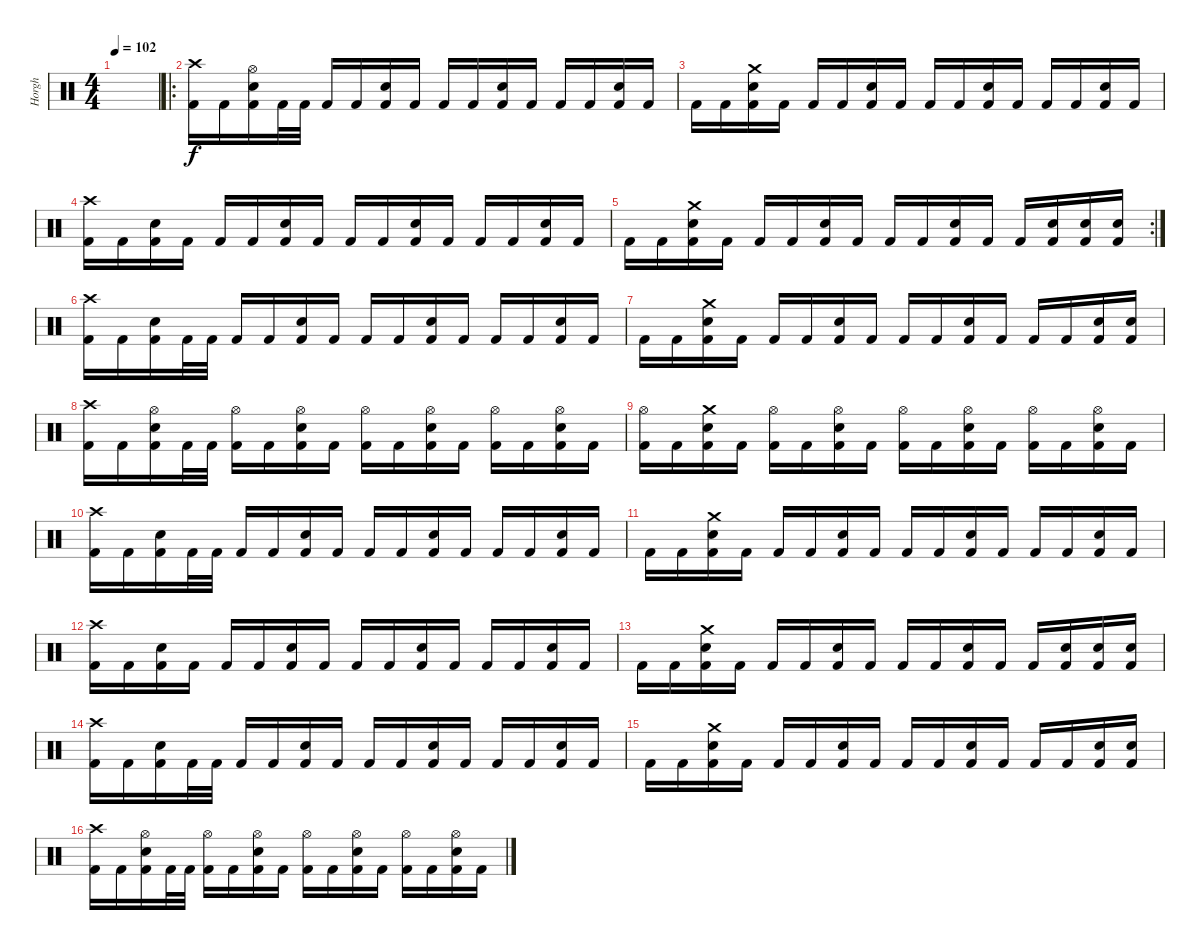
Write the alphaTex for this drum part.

\track ("Horgh" "Horgh") {instrument percussion}
\staff {score}
\articulation defaults
\ts (4 4)
\tempo 102
\clef neutral
\ks c
|
\ro
("Crash high (hit)" "Kick (hit) 2").16 "Kick (hit) 2".16 ("Hi-Hat (open)" "Electric Snare (hit)" "Kick (hit) 2").16 "Kick (hit) 2".32 "Kick (hit) 2".32 "Kick (hit) 2".16 "Kick (hit) 2".16 ("Electric Snare (hit)" "Kick (hit) 2").16 "Kick (hit) 2".16 "Kick (hit) 2".16 "Kick (hit) 2".16 ("Electric Snare (hit)" "Kick (hit) 2").16 "Kick (hit) 2".16 "Kick (hit) 2".16 "Kick (hit) 2".16 ("Electric Snare (hit)" "Kick (hit) 2").16 "Kick (hit) 2".16 |
"Kick (hit) 2".16 "Kick (hit) 2".16 ("Crash medium (hit)" "Electric Snare (hit)" "Kick (hit) 2").16 "Kick (hit) 2".16 "Kick (hit) 2".16 "Kick (hit) 2".16 ("Electric Snare (hit)" "Kick (hit) 2").16 "Kick (hit) 2".16 "Kick (hit) 2".16 "Kick (hit) 2".16 ("Electric Snare (hit)" "Kick (hit) 2").16 "Kick (hit) 2".16 "Kick (hit) 2".16 "Kick (hit) 2".16 ("Electric Snare (hit)" "Kick (hit) 2").16 "Kick (hit) 2".16 |
("Crash high (hit)" "Kick (hit) 2").16 "Kick (hit) 2".16 ("Electric Snare (hit)" "Kick (hit) 2").16 "Kick (hit) 2".16 "Kick (hit) 2".16 "Kick (hit) 2".16 ("Electric Snare (hit)" "Kick (hit) 2").16 "Kick (hit) 2".16 "Kick (hit) 2".16 "Kick (hit) 2".16 ("Electric Snare (hit)" "Kick (hit) 2").16 "Kick (hit) 2".16 "Kick (hit) 2".16 "Kick (hit) 2".16 ("Electric Snare (hit)" "Kick (hit) 2").16 "Kick (hit) 2".16 |
\rc 2 "Kick (hit) 2".16 "Kick (hit) 2".16
("Crash medium (hit)" "Electric Snare (hit)" "Kick (hit) 2").16 "Kick (hit) 2".16 "Kick (hit) 2".16 "Kick (hit) 2".16 ("Electric Snare (hit)" "Kick (hit) 2").16 "Kick (hit) 2".16 "Kick (hit) 2".16 "Kick (hit) 2".16 ("Electric Snare (hit)" "Kick (hit) 2").16 "Kick (hit) 2".16 "Kick (hit) 2".16 ("Electric Snare (hit)" "Kick (hit) 2").16 ("Electric Snare (hit)" "Kick (hit) 2").16 ("Electric Snare (hit)" "Kick (hit) 2").16 |
("Crash high (hit)" "Kick (hit) 2").16 "Kick (hit) 2".16 ("Electric Snare (hit)" "Kick (hit) 2").16 "Kick (hit) 2".32 "Kick (hit) 2".32 "Kick (hit) 2".16 "Kick (hit) 2".16 ("Electric Snare (hit)" "Kick (hit) 2").16 "Kick (hit) 2".16 "Kick (hit) 2".16 "Kick (hit) 2".16 ("Electric Snare (hit)" "Kick (hit) 2").16 "Kick (hit) 2".16 "Kick (hit) 2".16 "Kick (hit) 2".16 ("Electric Snare (hit)" "Kick (hit) 2").16 "Kick (hit) 2".16 |
"Kick (hit) 2".16 "Kick (hit) 2".16 ("Crash medium (hit)" "Electric Snare (hit)" "Kick (hit) 2").16 "Kick (hit) 2".16 "Kick (hit) 2".16 "Kick (hit) 2".16 ("Electric Snare (hit)" "Kick (hit) 2").16 "Kick (hit) 2".16 "Kick (hit) 2".16 "Kick (hit) 2".16 ("Electric Snare (hit)" "Kick (hit) 2").16 "Kick (hit) 2".16 "Kick (hit) 2".16 "Kick (hit) 2".16 ("Electric Snare (hit)" "Kick (hit) 2").16 ("Electric Snare (hit)" "Kick (hit) 2").16 |
("Crash high (hit)" "Kick (hit) 2").16 "Kick (hit) 2".16 ("Hi-Hat (open)" "Electric Snare (hit)" "Kick (hit) 2").16 "Kick (hit) 2".32 "Kick (hit) 2".32 ("Hi-Hat (open)" "Kick (hit) 2").16 "Kick (hit) 2".16 ("Hi-Hat (open)" "Electric Snare (hit)" "Kick (hit) 2").16 "Kick (hit) 2".16 ("Hi-Hat (open)" "Kick (hit) 2").16 "Kick (hit) 2".16 ("Hi-Hat (open)" "Electric Snare (hit)" "Kick (hit) 2").16 "Kick (hit) 2".16 ("Hi-Hat (open)" "Kick (hit) 2").16 "Kick (hit) 2".16 ("Hi-Hat (open)" "Electric Snare (hit)" "Kick (hit) 2").16 "Kick (hit) 2".16 |
("Hi-Hat (open)" "Kick (hit) 2").16 "Kick (hit) 2".16 ("Crash medium (hit)" "Electric Snare (hit)" "Kick (hit) 2").16 "Kick (hit) 2".16 ("Hi-Hat (open)" "Kick (hit) 2").16 "Kick (hit) 2".16 ("Hi-Hat (open)" "Electric Snare (hit)" "Kick (hit) 2").16 "Kick (hit) 2".16 ("Hi-Hat (open)" "Kick (hit) 2").16 "Kick (hit) 2".16 ("Hi-Hat (open)" "Electric Snare (hit)" "Kick (hit) 2").16 "Kick (hit) 2".16 ("Hi-Hat (open)" "Kick (hit) 2").16 "Kick (hit) 2".16 ("Hi-Hat (open)" "Electric Snare (hit)" "Kick (hit) 2").16 "Kick (hit) 2".16 |
("Crash high (hit)" "Kick (hit) 2").16 "Kick (hit) 2".16 ("Electric Snare (hit)" "Kick (hit) 2").16 "Kick (hit) 2".32 "Kick (hit) 2".32 "Kick (hit) 2".16 "Kick (hit) 2".16 ("Electric Snare (hit)" "Kick (hit) 2").16 "Kick (hit) 2".16 "Kick (hit) 2".16 "Kick (hit) 2".16 ("Electric Snare (hit)" "Kick (hit) 2").16 "Kick (hit) 2".16 "Kick (hit) 2".16 "Kick (hit) 2".16 ("Electric Snare (hit)" "Kick (hit) 2").16 "Kick (hit) 2".16 |
"Kick (hit) 2".16 "Kick (hit) 2".16 ("Crash medium (hit)" "Electric Snare (hit)" "Kick (hit) 2").16 "Kick (hit) 2".16 "Kick (hit) 2".16 "Kick (hit) 2".16 ("Electric Snare (hit)" "Kick (hit) 2").16 "Kick (hit) 2".16 "Kick (hit) 2".16 "Kick (hit) 2".16 ("Electric Snare (hit)" "Kick (hit) 2").16 "Kick (hit) 2".16 "Kick (hit) 2".16 "Kick (hit) 2".16 ("Electric Snare (hit)" "Kick (hit) 2").16 "Kick (hit) 2".16 |
("Crash high (hit)" "Kick (hit) 2").16 "Kick (hit) 2".16 ("Electric Snare (hit)" "Kick (hit) 2").16 "Kick (hit) 2".16 "Kick (hit) 2".16 "Kick (hit) 2".16 ("Electric Snare (hit)" "Kick (hit) 2").16 "Kick (hit) 2".16 "Kick (hit) 2".16 "Kick (hit) 2".16 ("Electric Snare (hit)" "Kick (hit) 2").16 "Kick (hit) 2".16 "Kick (hit) 2".16 "Kick (hit) 2".16 ("Electric Snare (hit)" "Kick (hit) 2").16 "Kick (hit) 2".16 |
"Kick (hit) 2".16 "Kick (hit) 2".16 ("Crash medium (hit)" "Electric Snare (hit)" "Kick (hit) 2").16 "Kick (hit) 2".16 "Kick (hit) 2".16 "Kick (hit) 2".16 ("Electric Snare (hit)" "Kick (hit) 2").16 "Kick (hit) 2".16 "Kick (hit) 2".16 "Kick (hit) 2".16 ("Electric Snare (hit)" "Kick (hit) 2").16 "Kick (hit) 2".16 "Kick (hit) 2".16 ("Electric Snare (hit)" "Kick (hit) 2").16 ("Electric Snare (hit)" "Kick (hit) 2").16 ("Electric Snare (hit)" "Kick (hit) 2").16 |
("Crash high (hit)" "Kick (hit) 2").16 "Kick (hit) 2".16 ("Electric Snare (hit)" "Kick (hit) 2").16 "Kick (hit) 2".32 "Kick (hit) 2".32 "Kick (hit) 2".16 "Kick (hit) 2".16 ("Electric Snare (hit)" "Kick (hit) 2").16 "Kick (hit) 2".16 "Kick (hit) 2".16 "Kick (hit) 2".16 ("Electric Snare (hit)" "Kick (hit) 2").16 "Kick (hit) 2".16 "Kick (hit) 2".16 "Kick (hit) 2".16 ("Electric Snare (hit)" "Kick (hit) 2").16 "Kick (hit) 2".16 |
"Kick (hit) 2".16 "Kick (hit) 2".16 ("Crash medium (hit)" "Electric Snare (hit)" "Kick (hit) 2").16 "Kick (hit) 2".16 "Kick (hit) 2".16 "Kick (hit) 2".16 ("Electric Snare (hit)" "Kick (hit) 2").16 "Kick (hit) 2".16 "Kick (hit) 2".16 "Kick (hit) 2".16 ("Electric Snare (hit)" "Kick (hit) 2").16 "Kick (hit) 2".16 "Kick (hit) 2".16 "Kick (hit) 2".16 ("Electric Snare (hit)" "Kick (hit) 2").16 ("Electric Snare (hit)" "Kick (hit) 2").16 |
("Crash high (hit)" "Kick (hit) 2").16 "Kick (hit) 2".16 ("Hi-Hat (open)" "Electric Snare (hit)" "Kick (hit) 2").16 "Kick (hit) 2".32 "Kick (hit) 2".32 ("Hi-Hat (open)" "Kick (hit) 2").16 "Kick (hit) 2".16 ("Hi-Hat (open)" "Electric Snare (hit)" "Kick (hit) 2").16 "Kick (hit) 2".16 ("Hi-Hat (open)" "Kick (hit) 2").16 "Kick (hit) 2".16 ("Hi-Hat (open)" "Electric Snare (hit)" "Kick (hit) 2").16 "Kick (hit) 2".16 ("Hi-Hat (open)" "Kick (hit) 2").16 "Kick (hit) 2".16 ("Hi-Hat (open)" "Electric Snare (hit)" "Kick (hit) 2").16 "Kick (hit) 2".16
